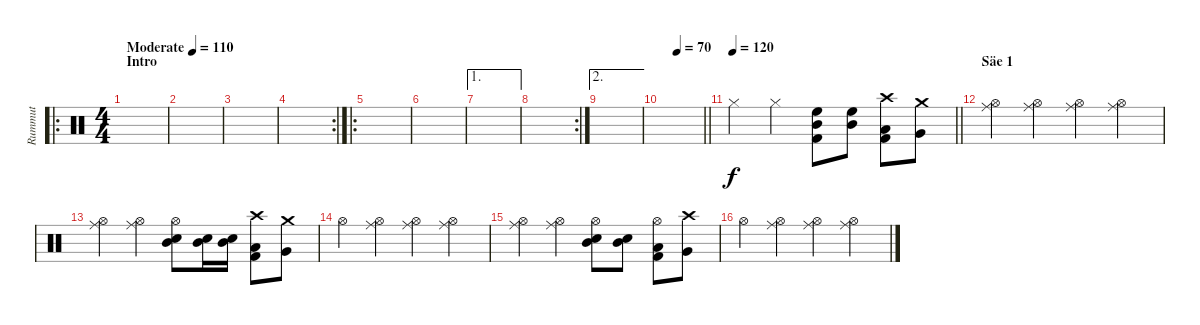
\track ("Rummut" "Rummut") {instrument percussion}
\staff {score}
\articulation defaults
\ro
\ts (4 4)
\section ("" "Intro")
\tempo (110 "Moderate")
\clef neutral
\ks c
|
|
|
\rc 2
|
\ro
|
|
\ae 1
|
\rc 2
|
\ae 2
|
\tempo (70 0.375)
\barLineRight lightlight
|
\tempo 120
\barLineRight lightlight "Hi-Hat (closed)".4 "Hi-Hat (closed)".4
("Mid Tom (hit)" "High Floor Tom (hit)" "Kick (hit) 2").8 ("Mid Tom (hit)" "High Floor Tom (hit)").8 ("Low Tom (hit)" "Kick (hit) 2" "Crash high (hit)").8 ("Very Low Tom (hit)" "Crash medium (hit)").8 |
\section ("" "Säe 1")
("Ride (middle)" "Hi-Hat (open)").4 ("Ride (middle)" "Hi-Hat (open)").4 ("Ride (middle)" "Hi-Hat (open)").4 ("Ride (middle)" "Hi-Hat (open)").4 |
("Ride (middle)" "Hi-Hat (open)").4 ("Ride (middle)" "Hi-Hat (open)").4 ("Mid Tom (hit)" "Snare (hit) 2" "Hi-Hat (open)").8 ("Mid Tom (hit)" "Snare (hit) 2").16 ("Mid Tom (hit)" "Snare (hit) 2").16 ("Low Tom (hit)" "Crash high (hit)" "Kick (hit) 2").8 ("Crash medium (hit)" "Very Low Tom (hit)").8 |
"Hi-Hat (open)".4 ("Ride (middle)" "Hi-Hat (open)").4 ("Ride (middle)" "Hi-Hat (open)").4 ("Ride (middle)" "Hi-Hat (open)").4 |
("Ride (middle)" "Hi-Hat (open)").4 ("Ride (middle)" "Hi-Hat (open)").4 ("Mid Tom (hit)" "Snare (hit) 2" "Hi-Hat (open)").8 ("Mid Tom (hit)" "Snare (hit) 2").8 ("Hi-Hat (open)" "Low Tom (hit)" "Kick (hit) 2").8 ("Crash high (hit)" "Very Low Tom (hit)").8 |
"Hi-Hat (open)".4 ("Ride (middle)" "Hi-Hat (open)").4 ("Ride (middle)" "Hi-Hat (open)").4 ("Ride (middle)" "Hi-Hat (open)").4
